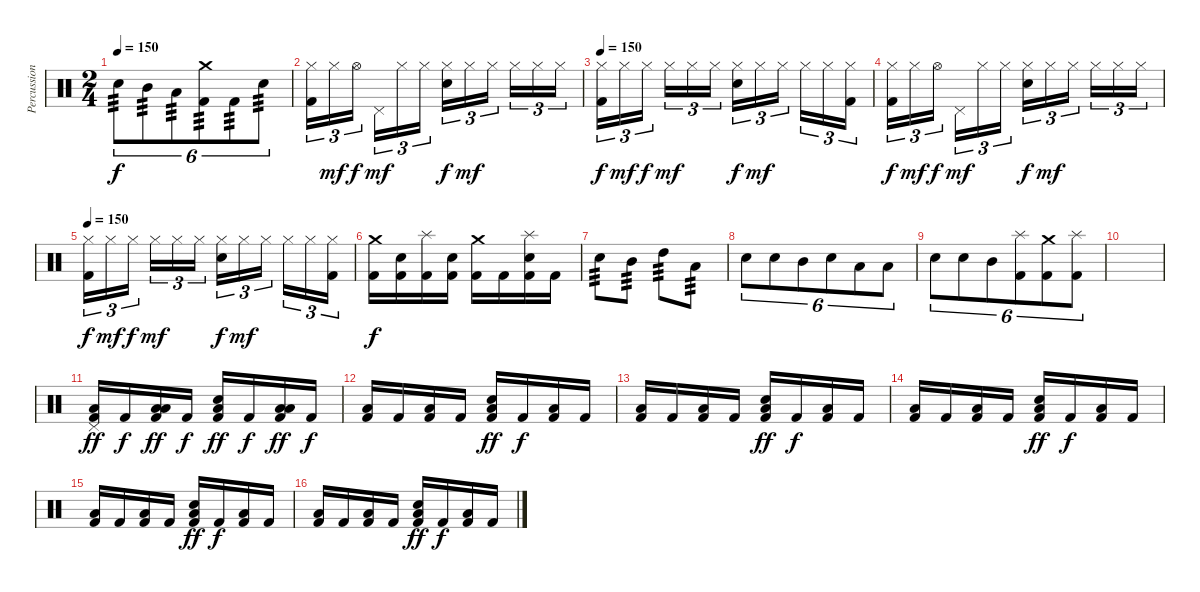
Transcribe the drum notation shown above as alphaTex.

\track ("Percussion" "Percussion") {instrument percussion}
\staff {score}
\articulation defaults
\ts (2 4)
\tempo 150
\clef neutral
\ks c "Snare (hit) 2".8{tu (6 4) tp 3 dy f} "Mid Tom (hit)".8{tu (6 4) tp 3} "Low Tom (hit)".8{tu (6 4) tp 3}
("Crash medium (hit)" "Kick (hit) 2").8{tu (6 4) tp 3} "Kick (hit) 2".8{tu (6 4) tp 3} "Snare (hit) 2".8{tu (6 4) tp 3} |
("Kick (hit) 2" "Hi-Hat (closed)").16{tu (3 2)} "Hi-Hat (closed)".16{tu (3 2) dy mf} "Hi-Hat (open)".16{tu (3 2) dy f beam splitsecondary} "Pedal Hi-Hat (hit)".16{tu (3 2) dy mf} "Hi-Hat (closed)".16{tu (3 2)} "Hi-Hat (closed)".16{tu (3 2)} ("Snare (hit) 2" "Hi-Hat (closed)").16{tu (3 2) dy f} "Hi-Hat (closed)".16{tu (3 2) dy mf} "Hi-Hat (closed)".16{tu (3 2) beam splitsecondary} "Hi-Hat (closed)".16{tu (3 2)} "Hi-Hat (closed)".16{tu (3 2)} "Hi-Hat (closed)".16{tu (3 2)} |
\tempo 150
("Kick (hit) 2" "Hi-Hat (closed)").16{tu (3 2) dy f} "Hi-Hat (closed)".16{tu (3 2) dy mf} "Hi-Hat (closed)".16{tu (3 2) dy f beam splitsecondary} "Hi-Hat (closed)".16{tu (3 2) dy mf} "Hi-Hat (closed)".16{tu (3 2)} "Hi-Hat (closed)".16{tu (3 2)} ("Snare (hit) 2" "Hi-Hat (closed)").16{tu (3 2) dy f} "Hi-Hat (closed)".16{tu (3 2) dy mf} "Hi-Hat (closed)".16{tu (3 2) beam splitsecondary} "Hi-Hat (closed)".16{tu (3 2)} "Hi-Hat (closed)".16{tu (3 2)} ("Kick (hit) 2" "Hi-Hat (closed)").16{tu (3 2)} |
("Kick (hit) 2" "Hi-Hat (closed)").16{tu (3 2) dy f} "Hi-Hat (closed)".16{tu (3 2) dy mf} "Hi-Hat (open)".16{tu (3 2) dy f beam splitsecondary} "Pedal Hi-Hat (hit)".16{tu (3 2) dy mf} "Hi-Hat (closed)".16{tu (3 2)} "Hi-Hat (closed)".16{tu (3 2)} ("Snare (hit) 2" "Hi-Hat (closed)").16{tu (3 2) dy f} "Hi-Hat (closed)".16{tu (3 2) dy mf} "Hi-Hat (closed)".16{tu (3 2) beam splitsecondary} "Hi-Hat (closed)".16{tu (3 2)} "Hi-Hat (closed)".16{tu (3 2)} "Hi-Hat (closed)".16{tu (3 2)} |
\tempo 150
("Kick (hit) 2" "Hi-Hat (closed)").16{tu (3 2) dy f} "Hi-Hat (closed)".16{tu (3 2) dy mf} "Hi-Hat (closed)".16{tu (3 2) dy f beam splitsecondary} "Hi-Hat (closed)".16{tu (3 2) dy mf} "Hi-Hat (closed)".16{tu (3 2)} "Hi-Hat (closed)".16{tu (3 2)} ("Snare (hit) 2" "Hi-Hat (closed)").16{tu (3 2) dy f} "Hi-Hat (closed)".16{tu (3 2) dy mf} "Hi-Hat (closed)".16{tu (3 2) beam splitsecondary} "Hi-Hat (closed)".16{tu (3 2)} "Hi-Hat (closed)".16{tu (3 2)} ("Kick (hit) 2" "Hi-Hat (closed)").16{tu (3 2)} |
("Kick (hit) 2" "Crash medium (hit)").16{dy f} ("Kick (hit) 2" "Snare (hit) 2").16 ("Kick (hit) 2" "Splash (hit)").16 ("Kick (hit) 2" "Snare (hit) 2").16 ("Kick (hit) 2" "Crash medium (hit)").16 "Kick (hit) 2".16 ("Kick (hit) 2" "Snare (hit) 2" "Splash (hit)").16 "Kick (hit) 2".16 |
"Snare (hit) 2".8{tp 3} "Mid Tom (hit)".8{tp 3} "High Tom (hit)".8{tp 3} "Low Tom (hit)".8{tp 3} |
"Snare (hit) 2".8{tu (6 4)} "Snare (hit) 2".8{tu (6 4)} "Mid Tom (hit)".8{tu (6 4)} "Snare (hit) 2".8{tu (6 4)} "Low Tom (hit)".8{tu (6 4)} "Low Tom (hit)".8{tu (6 4)} |
"Snare (hit) 2".8{tu (6 4)} "Snare (hit) 2".8{tu (6 4)} "Mid Tom (hit)".8{tu (6 4)} ("Kick (hit) 2" "Splash (hit)").8{tu (6 4)} ("Kick (hit) 2" "Crash medium (hit)").8{tu (6 4)} ("Kick (hit) 2" "Splash (hit)").8{tu (6 4)} |
|
("Kick (hit) 2" "Pedal Hi-Hat (hit)" "Low Tom (hit)").16{dy ff} "Kick (hit) 2".16{dy f} ("Kick (hit) 2" "Low Tom (hit)" "Low Tom (hit)").16{dy ff} "Kick (hit) 2".16{dy f} ("Kick (hit) 2" "Snare (hit) 2" "Low Tom (hit)").16{dy ff} "Kick (hit) 2".16{dy f} ("Kick (hit) 2" "Low Tom (hit)" "Low Tom (hit)").16{dy ff} "Kick (hit) 2".16{dy f} |
("Kick (hit) 2" "Low Tom (hit)").16 "Kick (hit) 2".16 ("Kick (hit) 2" "Low Tom (hit)").16 "Kick (hit) 2".16 ("Kick (hit) 2" "Snare (hit) 2" "Low Tom (hit)").16{dy ff} "Kick (hit) 2".16{dy f} ("Kick (hit) 2" "Low Tom (hit)").16 "Kick (hit) 2".16 |
("Kick (hit) 2" "Low Tom (hit)").16 "Kick (hit) 2".16 ("Kick (hit) 2" "Low Tom (hit)").16 "Kick (hit) 2".16 ("Kick (hit) 2" "Snare (hit) 2" "Low Tom (hit)").16{dy ff} "Kick (hit) 2".16{dy f} ("Kick (hit) 2" "Low Tom (hit)").16 "Kick (hit) 2".16 |
("Kick (hit) 2" "Low Tom (hit)").16 "Kick (hit) 2".16 ("Kick (hit) 2" "Low Tom (hit)").16 "Kick (hit) 2".16 ("Kick (hit) 2" "Snare (hit) 2" "Low Tom (hit)").16{dy ff} "Kick (hit) 2".16{dy f} ("Kick (hit) 2" "Low Tom (hit)").16 "Kick (hit) 2".16 |
("Kick (hit) 2" "Low Tom (hit)").16 "Kick (hit) 2".16 ("Kick (hit) 2" "Low Tom (hit)").16 "Kick (hit) 2".16 ("Kick (hit) 2" "Snare (hit) 2" "Low Tom (hit)").16{dy ff} "Kick (hit) 2".16{dy f} ("Kick (hit) 2" "Low Tom (hit)").16 "Kick (hit) 2".16 |
("Kick (hit) 2" "Low Tom (hit)").16 "Kick (hit) 2".16 ("Kick (hit) 2" "Low Tom (hit)").16 "Kick (hit) 2".16 ("Kick (hit) 2" "Snare (hit) 2" "Low Tom (hit)").16{dy ff} "Kick (hit) 2".16{dy f} ("Kick (hit) 2" "Low Tom (hit)").16 "Kick (hit) 2".16
